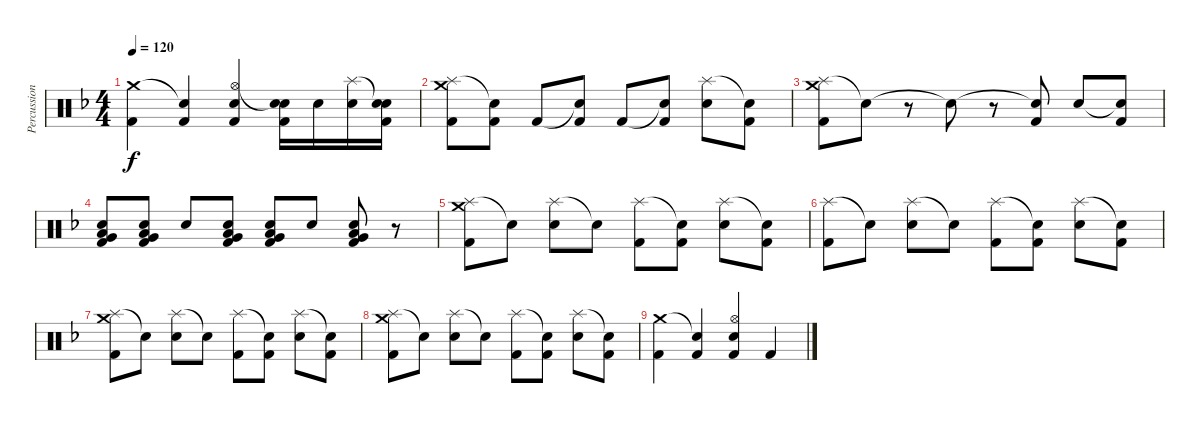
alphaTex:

\track ("Percussion" "Percussion") {instrument percussion}
\staff {score}
\articulation defaults
\ts (4 4)
\tempo 120
\clef neutral
\ks f
("Crash medium (hit)" "Kick (hit) 2").4{dy f} ("Snare (hit)"{t} "Kick (hit) 2").4 ("Hi-Hat (open)" "Electric Snare (hit)" "Kick (hit) 2").4 ("Snare (hit)"{t} "Electric Snare (hit)" "Kick (hit) 2").16 "Electric Snare (hit)".16 ("Splash (hit)" "Electric Snare (hit)").16 ("Snare (hit)"{t} "Electric Snare (hit)" "Kick (hit) 2").16 |
("Splash (hit)" "Crash medium (hit)" "Kick (hit) 2").8 ("Snare (hit)"{t} "Kick (hit) 2").8 "Kick (hit) 2".8 ("Snare (hit)"{t} "Kick (hit) 2").8 "Kick (hit) 2".8 ("Snare (hit)"{t} "Kick (hit) 2").8 ("Splash (hit)" "Electric Snare (hit)").8 ("Snare (hit)"{t} "Kick (hit) 2").8 |
("Splash (hit)" "Crash medium (hit)" "Kick (hit) 2").8 "Snare (hit)"{t}.8 r.8 "Snare (hit)"{t}.8 r.8 ("Snare (hit)"{t} "Kick (hit) 2").8 "Electric Snare (hit)".8 ("Snare (hit)"{t} "Kick (hit) 2").8 |
("Electric Snare (hit)" "Low Floor Tom (hit)" "Very Low Tom (hit)" "Kick (hit) 2").8 ("Electric Snare (hit)" "Low Floor Tom (hit)" "Very Low Tom (hit)" "Kick (hit) 2").8 "Electric Snare (hit)".8 ("Electric Snare (hit)" "Low Floor Tom (hit)" "Very Low Tom (hit)" "Kick (hit) 2").8 ("Electric Snare (hit)" "Low Floor Tom (hit)" "Very Low Tom (hit)" "Kick (hit) 2").8 "Electric Snare (hit)".8 ("Electric Snare (hit)" "Low Floor Tom (hit)" "Very Low Tom (hit)" "Kick (hit) 2").8 r.8 |
("Splash (hit)" "Crash medium (hit)" "Kick (hit) 2").8 "Snare (hit)"{t}.8 ("Splash (hit)" "Electric Snare (hit)").8 "Snare (hit)"{t}.8 ("Splash (hit)" "Kick (hit) 2").8 ("Snare (hit)"{t} "Kick (hit) 2").8 ("Splash (hit)" "Electric Snare (hit)").8 ("Snare (hit)"{t} "Kick (hit) 2").8 |
("Splash (hit)" "Kick (hit) 2").8 "Snare (hit)"{t}.8 ("Splash (hit)" "Electric Snare (hit)").8 "Snare (hit)"{t}.8 ("Splash (hit)" "Kick (hit) 2").8 ("Snare (hit)"{t} "Kick (hit) 2").8 ("Splash (hit)" "Electric Snare (hit)").8 ("Snare (hit)"{t} "Kick (hit) 2").8 |
("Splash (hit)" "Crash medium (hit)" "Kick (hit) 2").8 "Snare (hit)"{t}.8 ("Splash (hit)" "Electric Snare (hit)").8 "Snare (hit)"{t}.8 ("Splash (hit)" "Kick (hit) 2").8 ("Snare (hit)"{t} "Kick (hit) 2").8 ("Splash (hit)" "Electric Snare (hit)").8 ("Snare (hit)"{t} "Kick (hit) 2").8 |
("Splash (hit)" "Crash medium (hit)" "Kick (hit) 2").8 "Snare (hit)"{t}.8 ("Splash (hit)" "Electric Snare (hit)").8 "Snare (hit)"{t}.8 ("Splash (hit)" "Kick (hit) 2").8 ("Snare (hit)"{t} "Kick (hit) 2").8 ("Splash (hit)" "Electric Snare (hit)").8 ("Snare (hit)"{t} "Kick (hit) 2").8 |
("Crash medium (hit)" "Kick (hit) 2").4 ("Snare (hit)"{t} "Kick (hit) 2").4 ("Hi-Hat (open)" "Electric Snare (hit)" "Kick (hit) 2").4 "Kick (hit) 2".4
